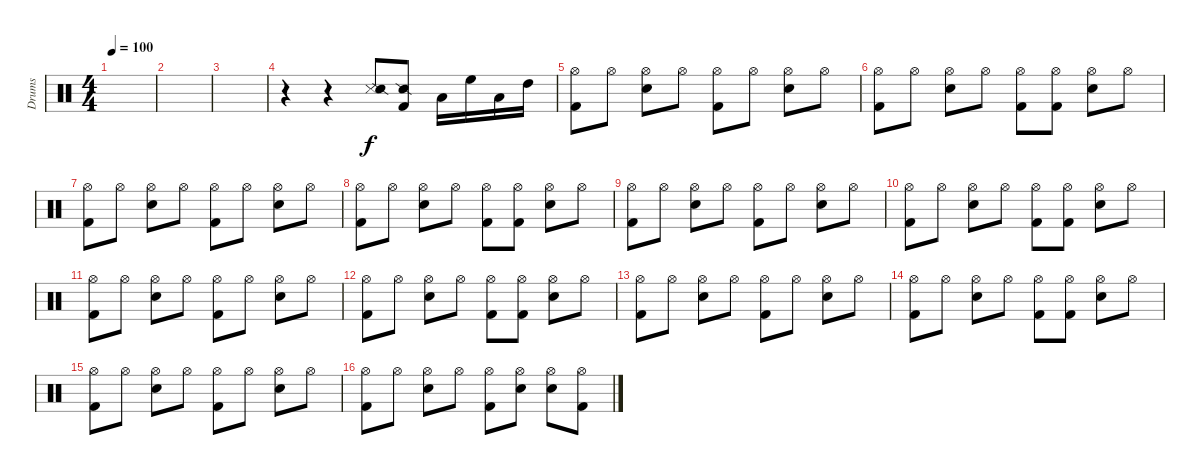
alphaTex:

\track ("Drums" "Drums") {instrument percussion}
\staff {score}
\articulation defaults
\ts (4 4)
\tempo 100
\clef neutral
\ks c
|
|
|
r.4 r.4 ("Snare (side stick) 3" "Snare (side stick) 2").8 ("Snare (side stick) 2" "Kick (hit) 2").8 "Low Tom (hit)".16 "High Floor Tom (hit)".16 "Low Tom (hit)".16 "High Tom (hit)".16 |
("Hi-Hat (open)" "Kick (hit) 2").8 "Hi-Hat (open)".8 ("Hi-Hat (open)" "Electric Snare (hit)").8 "Hi-Hat (open)".8 ("Hi-Hat (open)" "Kick (hit) 2").8 "Hi-Hat (open)".8 ("Hi-Hat (open)" "Electric Snare (hit)").8 "Hi-Hat (open)".8 |
("Hi-Hat (open)" "Kick (hit) 2").8 "Hi-Hat (open)".8 ("Hi-Hat (open)" "Electric Snare (hit)").8 "Hi-Hat (open)".8 ("Hi-Hat (open)" "Kick (hit) 2").8 ("Hi-Hat (open)" "Kick (hit) 2").8 ("Hi-Hat (open)" "Electric Snare (hit)").8 "Hi-Hat (open)".8 |
("Hi-Hat (open)" "Kick (hit) 2").8 "Hi-Hat (open)".8 ("Hi-Hat (open)" "Electric Snare (hit)").8 "Hi-Hat (open)".8 ("Hi-Hat (open)" "Kick (hit) 2").8 "Hi-Hat (open)".8 ("Hi-Hat (open)" "Electric Snare (hit)").8 "Hi-Hat (open)".8 |
("Hi-Hat (open)" "Kick (hit) 2").8 "Hi-Hat (open)".8 ("Hi-Hat (open)" "Electric Snare (hit)").8 "Hi-Hat (open)".8 ("Hi-Hat (open)" "Kick (hit) 2").8 ("Hi-Hat (open)" "Kick (hit) 2").8 ("Hi-Hat (open)" "Electric Snare (hit)").8 "Hi-Hat (open)".8 |
("Hi-Hat (open)" "Kick (hit) 2").8 "Hi-Hat (open)".8 ("Hi-Hat (open)" "Electric Snare (hit)").8 "Hi-Hat (open)".8 ("Hi-Hat (open)" "Kick (hit) 2").8 "Hi-Hat (open)".8 ("Hi-Hat (open)" "Electric Snare (hit)").8 "Hi-Hat (open)".8 |
("Hi-Hat (open)" "Kick (hit) 2").8 "Hi-Hat (open)".8 ("Hi-Hat (open)" "Electric Snare (hit)").8 "Hi-Hat (open)".8 ("Hi-Hat (open)" "Kick (hit) 2").8 ("Hi-Hat (open)" "Kick (hit) 2").8 ("Hi-Hat (open)" "Electric Snare (hit)").8 "Hi-Hat (open)".8 |
("Hi-Hat (open)" "Kick (hit) 2").8 "Hi-Hat (open)".8 ("Hi-Hat (open)" "Electric Snare (hit)").8 "Hi-Hat (open)".8 ("Hi-Hat (open)" "Kick (hit) 2").8 "Hi-Hat (open)".8 ("Hi-Hat (open)" "Electric Snare (hit)").8 "Hi-Hat (open)".8 |
("Hi-Hat (open)" "Kick (hit) 2").8 "Hi-Hat (open)".8 ("Hi-Hat (open)" "Electric Snare (hit)").8 "Hi-Hat (open)".8 ("Hi-Hat (open)" "Kick (hit) 2").8 ("Hi-Hat (open)" "Kick (hit) 2").8 ("Hi-Hat (open)" "Electric Snare (hit)").8 "Hi-Hat (open)".8 |
("Hi-Hat (open)" "Kick (hit) 2").8 "Hi-Hat (open)".8 ("Hi-Hat (open)" "Electric Snare (hit)").8 "Hi-Hat (open)".8 ("Hi-Hat (open)" "Kick (hit) 2").8 "Hi-Hat (open)".8 ("Hi-Hat (open)" "Electric Snare (hit)").8 "Hi-Hat (open)".8 |
("Hi-Hat (open)" "Kick (hit) 2").8 "Hi-Hat (open)".8 ("Hi-Hat (open)" "Electric Snare (hit)").8 "Hi-Hat (open)".8 ("Hi-Hat (open)" "Kick (hit) 2").8 ("Hi-Hat (open)" "Kick (hit) 2").8 ("Hi-Hat (open)" "Electric Snare (hit)").8 "Hi-Hat (open)".8 |
("Hi-Hat (open)" "Kick (hit) 2").8 "Hi-Hat (open)".8 ("Hi-Hat (open)" "Electric Snare (hit)").8 "Hi-Hat (open)".8 ("Hi-Hat (open)" "Kick (hit) 2").8 "Hi-Hat (open)".8 ("Hi-Hat (open)" "Electric Snare (hit)").8 "Hi-Hat (open)".8 |
("Hi-Hat (open)" "Kick (hit) 2").8 "Hi-Hat (open)".8 ("Hi-Hat (open)" "Electric Snare (hit)").8 "Hi-Hat (open)".8 ("Hi-Hat (open)" "Kick (hit) 2").8 ("Hi-Hat (open)" "Electric Snare (hit)").8 ("Hi-Hat (open)" "Electric Snare (hit)").8 ("Hi-Hat (open)" "Kick (hit) 2").8
